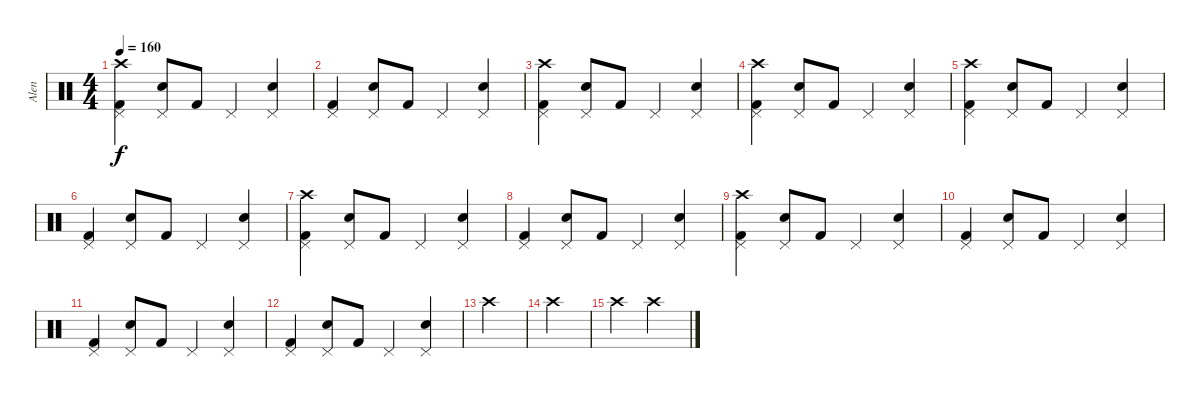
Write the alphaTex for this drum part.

\track ("Alen" "Alen") {instrument percussion}
\staff {score}
\articulation defaults
\ts (4 4)
\tempo 160
\clef neutral
\ks c
("Crash high (hit)" "Pedal Hi-Hat (hit)" "Kick (hit) 2").4{dy f} ("Pedal Hi-Hat (hit)" "Snare (hit) 2").8 "Kick (hit) 2".8 "Pedal Hi-Hat (hit)".4 ("Pedal Hi-Hat (hit)" "Snare (hit) 2").4 |
("Pedal Hi-Hat (hit)" "Kick (hit) 2").4 ("Pedal Hi-Hat (hit)" "Snare (hit) 2").8 "Kick (hit) 2".8 "Pedal Hi-Hat (hit)".4 ("Pedal Hi-Hat (hit)" "Snare (hit) 2").4 |
("Crash high (hit)" "Pedal Hi-Hat (hit)" "Kick (hit) 2").4 ("Pedal Hi-Hat (hit)" "Snare (hit) 2").8 "Kick (hit) 2".8 "Pedal Hi-Hat (hit)".4 ("Pedal Hi-Hat (hit)" "Snare (hit) 2").4 |
("Crash high (hit)" "Pedal Hi-Hat (hit)" "Kick (hit) 2").4 ("Pedal Hi-Hat (hit)" "Snare (hit) 2").8 "Kick (hit) 2".8 "Pedal Hi-Hat (hit)".4 ("Pedal Hi-Hat (hit)" "Snare (hit) 2").4 |
("Crash high (hit)" "Pedal Hi-Hat (hit)" "Kick (hit) 2").4 ("Pedal Hi-Hat (hit)" "Snare (hit) 2").8 "Kick (hit) 2".8 "Pedal Hi-Hat (hit)".4 ("Pedal Hi-Hat (hit)" "Snare (hit) 2").4 |
("Pedal Hi-Hat (hit)" "Kick (hit) 2").4 ("Pedal Hi-Hat (hit)" "Snare (hit) 2").8 "Kick (hit) 2".8 "Pedal Hi-Hat (hit)".4 ("Pedal Hi-Hat (hit)" "Snare (hit) 2").4 |
("Crash high (hit)" "Pedal Hi-Hat (hit)" "Kick (hit) 2").4 ("Pedal Hi-Hat (hit)" "Snare (hit) 2").8 "Kick (hit) 2".8 "Pedal Hi-Hat (hit)".4 ("Pedal Hi-Hat (hit)" "Snare (hit) 2").4 |
("Pedal Hi-Hat (hit)" "Kick (hit) 2").4 ("Pedal Hi-Hat (hit)" "Snare (hit) 2").8 "Kick (hit) 2".8 "Pedal Hi-Hat (hit)".4 ("Pedal Hi-Hat (hit)" "Snare (hit) 2").4 |
("Crash high (hit)" "Pedal Hi-Hat (hit)" "Kick (hit) 2").4 ("Pedal Hi-Hat (hit)" "Snare (hit) 2").8 "Kick (hit) 2".8 "Pedal Hi-Hat (hit)".4 ("Pedal Hi-Hat (hit)" "Snare (hit) 2").4 |
("Pedal Hi-Hat (hit)" "Kick (hit) 2").4 ("Pedal Hi-Hat (hit)" "Snare (hit) 2").8 "Kick (hit) 2".8 "Pedal Hi-Hat (hit)".4 ("Pedal Hi-Hat (hit)" "Snare (hit) 2").4 |
("Pedal Hi-Hat (hit)" "Kick (hit) 2").4 ("Pedal Hi-Hat (hit)" "Snare (hit) 2").8 "Kick (hit) 2".8 "Pedal Hi-Hat (hit)".4 ("Pedal Hi-Hat (hit)" "Snare (hit) 2").4 |
("Pedal Hi-Hat (hit)" "Kick (hit) 2").4 ("Pedal Hi-Hat (hit)" "Snare (hit) 2").8 "Kick (hit) 2".8 "Pedal Hi-Hat (hit)".4 ("Pedal Hi-Hat (hit)" "Snare (hit) 2").4 |
"Crash high (hit)".4 |
"Crash high (hit)".4 |
"Crash high (hit)".4 "Crash high (hit)".4
